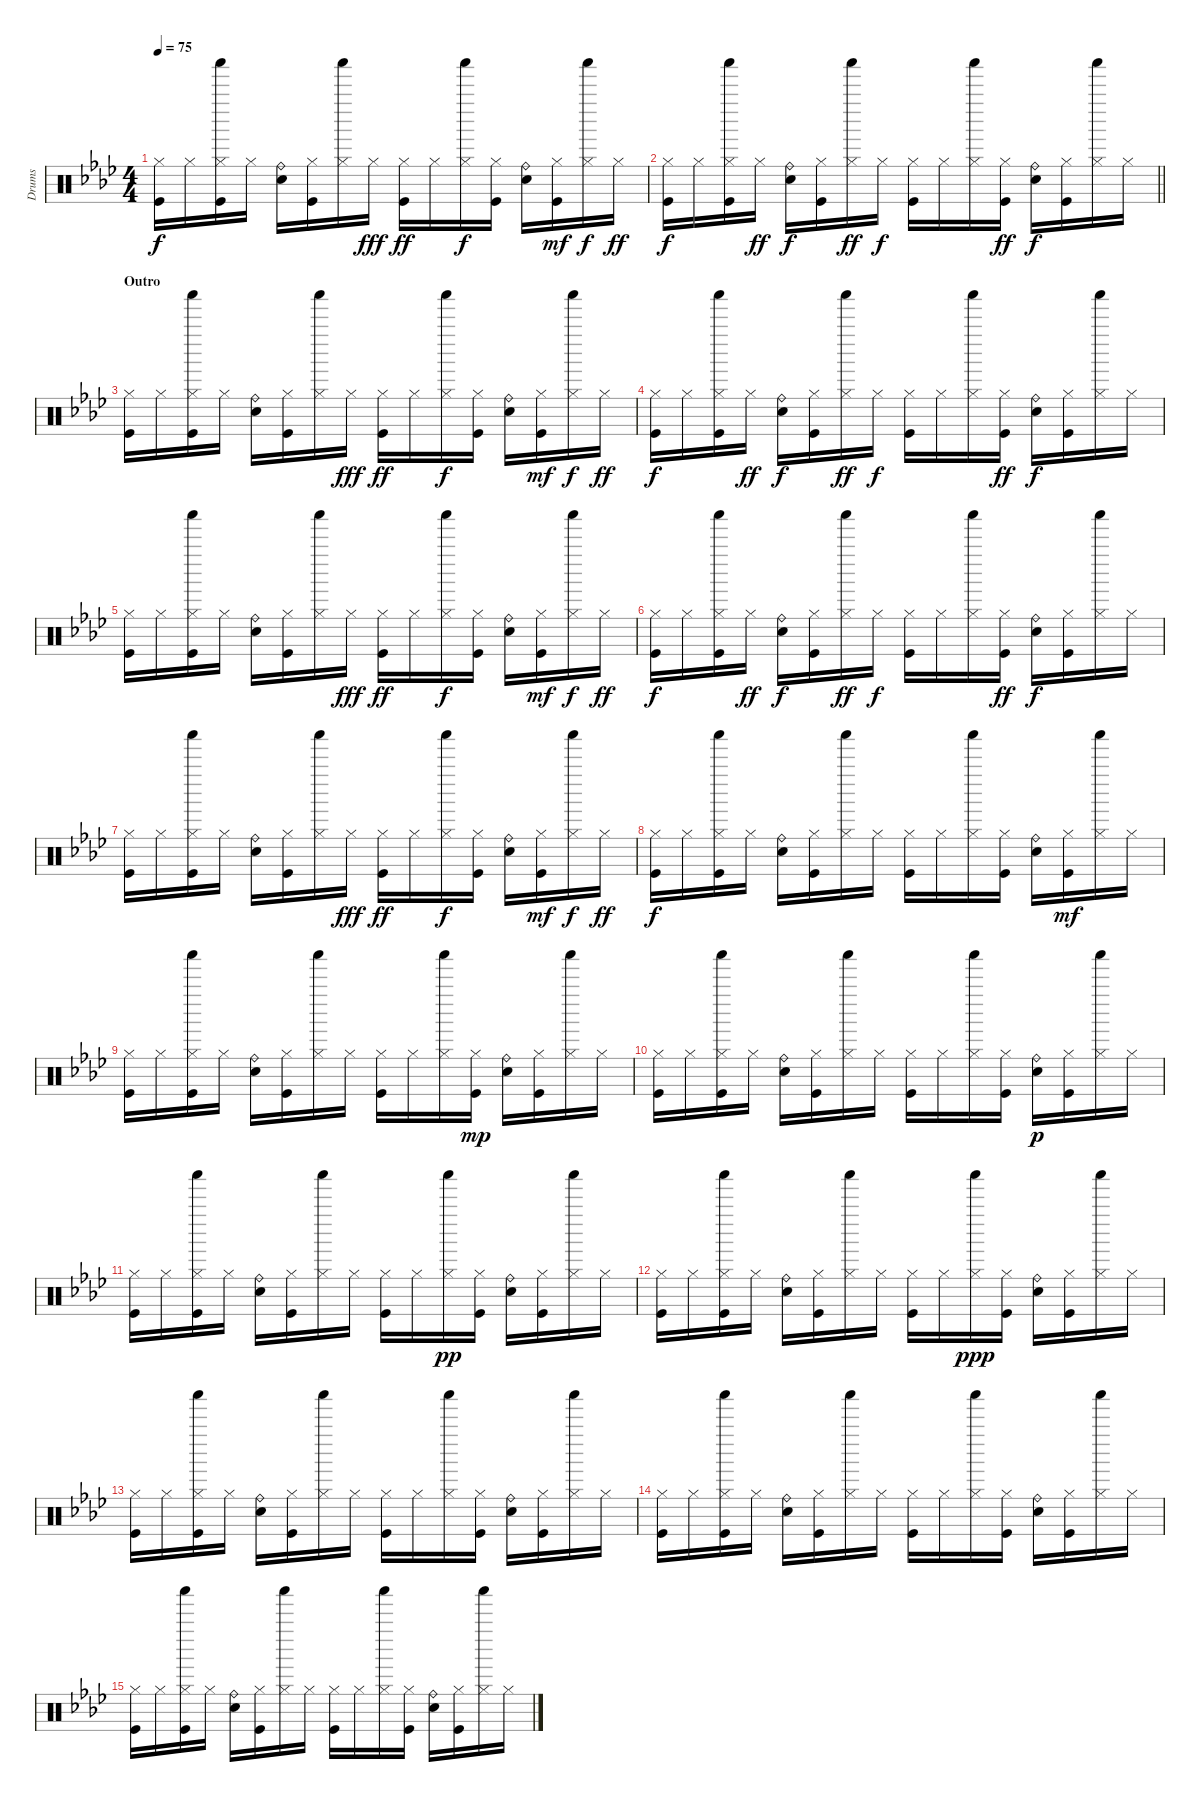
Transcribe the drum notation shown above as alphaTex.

\track ("Drums" "Drums") {instrument percussion}
\staff {score}
\articulation defaults
\ts (4 4)
\tempo 75
\clef neutral
\ks fminor
("Hi-Hat (closed)" "Kick (hit)").16{dy f} "Hi-Hat (closed)".16 ("Shaker (hit)" "Hi-Hat (closed)" "Kick (hit)").16 "Hi-Hat (closed)".16 ("Ride (bell)" "Electric Snare (hit)").16 ("Hi-Hat (closed)" "Kick (hit)").16 ("Shaker (hit)" "Hi-Hat (closed)").16 "Hi-Hat (closed)".16{dy fff} ("Hi-Hat (closed)" "Kick (hit)").16{dy ff} "Hi-Hat (closed)".16 ("Shaker (hit)" "Hi-Hat (closed)").16{dy f} ("Hi-Hat (closed)" "Kick (hit)").16 ("Ride (bell)" "Electric Snare (hit)").16 ("Hi-Hat (closed)" "Kick (hit)").16{dy mf} ("Shaker (hit)" "Hi-Hat (closed)").16{dy f} "Hi-Hat (closed)".16{dy ff} |
\barLineRight lightlight
("Hi-Hat (closed)" "Kick (hit)").16{dy f} "Hi-Hat (closed)".16 ("Shaker (hit)" "Hi-Hat (closed)" "Kick (hit)").16 "Hi-Hat (closed)".16{dy ff} ("Ride (bell)" "Electric Snare (hit)").16{dy f} ("Hi-Hat (closed)" "Kick (hit)").16 ("Shaker (hit)" "Hi-Hat (closed)").16{dy ff} "Hi-Hat (closed)".16{dy f} ("Hi-Hat (closed)" "Kick (hit)").16 "Hi-Hat (closed)".16 ("Shaker (hit)" "Hi-Hat (closed)").16 ("Hi-Hat (closed)" "Kick (hit)").16{dy ff} ("Ride (bell)" "Electric Snare (hit)").16{dy f} ("Hi-Hat (closed)" "Kick (hit)").16 ("Shaker (hit)" "Hi-Hat (closed)").16 "Hi-Hat (closed)".16 |
\section ("" "Outro")
("Hi-Hat (closed)" "Kick (hit)").16 "Hi-Hat (closed)".16 ("Shaker (hit)" "Hi-Hat (closed)" "Kick (hit)").16 "Hi-Hat (closed)".16 ("Ride (bell)" "Electric Snare (hit)").16 ("Hi-Hat (closed)" "Kick (hit)").16 ("Shaker (hit)" "Hi-Hat (closed)").16 "Hi-Hat (closed)".16{dy fff} ("Hi-Hat (closed)" "Kick (hit)").16{dy ff} "Hi-Hat (closed)".16 ("Shaker (hit)" "Hi-Hat (closed)").16{dy f} ("Hi-Hat (closed)" "Kick (hit)").16 ("Ride (bell)" "Electric Snare (hit)").16 ("Hi-Hat (closed)" "Kick (hit)").16{dy mf} ("Shaker (hit)" "Hi-Hat (closed)").16{dy f} "Hi-Hat (closed)".16{dy ff} |
("Hi-Hat (closed)" "Kick (hit)").16{dy f} "Hi-Hat (closed)".16 ("Shaker (hit)" "Hi-Hat (closed)" "Kick (hit)").16 "Hi-Hat (closed)".16{dy ff} ("Ride (bell)" "Electric Snare (hit)").16{dy f} ("Hi-Hat (closed)" "Kick (hit)").16 ("Shaker (hit)" "Hi-Hat (closed)").16{dy ff} "Hi-Hat (closed)".16{dy f} ("Hi-Hat (closed)" "Kick (hit)").16 "Hi-Hat (closed)".16 ("Shaker (hit)" "Hi-Hat (closed)").16 ("Hi-Hat (closed)" "Kick (hit)").16{dy ff} ("Ride (bell)" "Electric Snare (hit)").16{dy f} ("Hi-Hat (closed)" "Kick (hit)").16 ("Shaker (hit)" "Hi-Hat (closed)").16 "Hi-Hat (closed)".16 |
("Hi-Hat (closed)" "Kick (hit)").16 "Hi-Hat (closed)".16 ("Shaker (hit)" "Hi-Hat (closed)" "Kick (hit)").16 "Hi-Hat (closed)".16 ("Ride (bell)" "Electric Snare (hit)").16 ("Hi-Hat (closed)" "Kick (hit)").16 ("Shaker (hit)" "Hi-Hat (closed)").16 "Hi-Hat (closed)".16{dy fff} ("Hi-Hat (closed)" "Kick (hit)").16{dy ff} "Hi-Hat (closed)".16 ("Shaker (hit)" "Hi-Hat (closed)").16{dy f} ("Hi-Hat (closed)" "Kick (hit)").16 ("Ride (bell)" "Electric Snare (hit)").16 ("Hi-Hat (closed)" "Kick (hit)").16{dy mf} ("Shaker (hit)" "Hi-Hat (closed)").16{dy f} "Hi-Hat (closed)".16{dy ff} |
("Hi-Hat (closed)" "Kick (hit)").16{dy f} "Hi-Hat (closed)".16 ("Shaker (hit)" "Hi-Hat (closed)" "Kick (hit)").16 "Hi-Hat (closed)".16{dy ff} ("Ride (bell)" "Electric Snare (hit)").16{dy f} ("Hi-Hat (closed)" "Kick (hit)").16 ("Shaker (hit)" "Hi-Hat (closed)").16{dy ff} "Hi-Hat (closed)".16{dy f} ("Hi-Hat (closed)" "Kick (hit)").16 "Hi-Hat (closed)".16 ("Shaker (hit)" "Hi-Hat (closed)").16 ("Hi-Hat (closed)" "Kick (hit)").16{dy ff} ("Ride (bell)" "Electric Snare (hit)").16{dy f} ("Hi-Hat (closed)" "Kick (hit)").16 ("Shaker (hit)" "Hi-Hat (closed)").16 "Hi-Hat (closed)".16 |
("Hi-Hat (closed)" "Kick (hit)").16 "Hi-Hat (closed)".16 ("Shaker (hit)" "Hi-Hat (closed)" "Kick (hit)").16 "Hi-Hat (closed)".16 ("Ride (bell)" "Electric Snare (hit)").16 ("Hi-Hat (closed)" "Kick (hit)").16 ("Shaker (hit)" "Hi-Hat (closed)").16 "Hi-Hat (closed)".16{dy fff} ("Hi-Hat (closed)" "Kick (hit)").16{dy ff} "Hi-Hat (closed)".16 ("Shaker (hit)" "Hi-Hat (closed)").16{dy f} ("Hi-Hat (closed)" "Kick (hit)").16 ("Ride (bell)" "Electric Snare (hit)").16 ("Hi-Hat (closed)" "Kick (hit)").16{dy mf} ("Shaker (hit)" "Hi-Hat (closed)").16{dy f} "Hi-Hat (closed)".16{dy ff} |
("Hi-Hat (closed)" "Kick (hit)").16{dy f} "Hi-Hat (closed)".16 ("Shaker (hit)" "Hi-Hat (closed)" "Kick (hit)").16 "Hi-Hat (closed)".16 ("Ride (bell)" "Electric Snare (hit)").16 ("Hi-Hat (closed)" "Kick (hit)").16 ("Shaker (hit)" "Hi-Hat (closed)").16 "Hi-Hat (closed)".16 ("Hi-Hat (closed)" "Kick (hit)").16 "Hi-Hat (closed)".16 ("Shaker (hit)" "Hi-Hat (closed)").16 ("Hi-Hat (closed)" "Kick (hit)").16 ("Ride (bell)" "Electric Snare (hit)").16 ("Hi-Hat (closed)" "Kick (hit)").16{dy mf} ("Shaker (hit)" "Hi-Hat (closed)").16 "Hi-Hat (closed)".16 |
("Hi-Hat (closed)" "Kick (hit)").16 "Hi-Hat (closed)".16 ("Shaker (hit)" "Hi-Hat (closed)" "Kick (hit)").16 "Hi-Hat (closed)".16 ("Ride (bell)" "Electric Snare (hit)").16 ("Hi-Hat (closed)" "Kick (hit)").16 ("Shaker (hit)" "Hi-Hat (closed)").16 "Hi-Hat (closed)".16 ("Hi-Hat (closed)" "Kick (hit)").16 "Hi-Hat (closed)".16 ("Shaker (hit)" "Hi-Hat (closed)").16 ("Hi-Hat (closed)" "Kick (hit)").16{dy mp} ("Ride (bell)" "Electric Snare (hit)").16 ("Hi-Hat (closed)" "Kick (hit)").16 ("Shaker (hit)" "Hi-Hat (closed)").16 "Hi-Hat (closed)".16 |
("Hi-Hat (closed)" "Kick (hit)").16 "Hi-Hat (closed)".16 ("Shaker (hit)" "Hi-Hat (closed)" "Kick (hit)").16 "Hi-Hat (closed)".16 ("Ride (bell)" "Electric Snare (hit)").16 ("Hi-Hat (closed)" "Kick (hit)").16 ("Shaker (hit)" "Hi-Hat (closed)").16 "Hi-Hat (closed)".16 ("Hi-Hat (closed)" "Kick (hit)").16 "Hi-Hat (closed)".16 ("Shaker (hit)" "Hi-Hat (closed)").16 ("Hi-Hat (closed)" "Kick (hit)").16 ("Ride (bell)" "Electric Snare (hit)").16{dy p} ("Hi-Hat (closed)" "Kick (hit)").16 ("Shaker (hit)" "Hi-Hat (closed)").16 "Hi-Hat (closed)".16 |
("Hi-Hat (closed)" "Kick (hit)").16 "Hi-Hat (closed)".16 ("Shaker (hit)" "Hi-Hat (closed)" "Kick (hit)").16 "Hi-Hat (closed)".16 ("Ride (bell)" "Electric Snare (hit)").16 ("Hi-Hat (closed)" "Kick (hit)").16 ("Shaker (hit)" "Hi-Hat (closed)").16 "Hi-Hat (closed)".16 ("Hi-Hat (closed)" "Kick (hit)").16 "Hi-Hat (closed)".16 ("Shaker (hit)" "Hi-Hat (closed)").16{dy pp} ("Hi-Hat (closed)" "Kick (hit)").16 ("Ride (bell)" "Electric Snare (hit)").16 ("Hi-Hat (closed)" "Kick (hit)").16 ("Shaker (hit)" "Hi-Hat (closed)").16 "Hi-Hat (closed)".16 |
("Hi-Hat (closed)" "Kick (hit)").16 "Hi-Hat (closed)".16 ("Shaker (hit)" "Hi-Hat (closed)" "Kick (hit)").16 "Hi-Hat (closed)".16 ("Ride (bell)" "Electric Snare (hit)").16 ("Hi-Hat (closed)" "Kick (hit)").16 ("Shaker (hit)" "Hi-Hat (closed)").16 "Hi-Hat (closed)".16 ("Hi-Hat (closed)" "Kick (hit)").16 "Hi-Hat (closed)".16 ("Shaker (hit)" "Hi-Hat (closed)").16{dy ppp} ("Hi-Hat (closed)" "Kick (hit)").16 ("Ride (bell)" "Electric Snare (hit)").16 ("Hi-Hat (closed)" "Kick (hit)").16 ("Shaker (hit)" "Hi-Hat (closed)").16 "Hi-Hat (closed)".16 |
("Hi-Hat (closed)" "Kick (hit)").16 "Hi-Hat (closed)".16 ("Shaker (hit)" "Hi-Hat (closed)" "Kick (hit)").16 "Hi-Hat (closed)".16 ("Ride (bell)" "Electric Snare (hit)").16 ("Hi-Hat (closed)" "Kick (hit)").16 ("Shaker (hit)" "Hi-Hat (closed)").16 "Hi-Hat (closed)".16 ("Hi-Hat (closed)" "Kick (hit)").16 "Hi-Hat (closed)".16 ("Shaker (hit)" "Hi-Hat (closed)").16 ("Hi-Hat (closed)" "Kick (hit)").16 ("Ride (bell)" "Electric Snare (hit)").16 ("Hi-Hat (closed)" "Kick (hit)").16 ("Shaker (hit)" "Hi-Hat (closed)").16 "Hi-Hat (closed)".16 |
("Hi-Hat (closed)" "Kick (hit)").16 "Hi-Hat (closed)".16 ("Shaker (hit)" "Hi-Hat (closed)" "Kick (hit)").16 "Hi-Hat (closed)".16 ("Ride (bell)" "Electric Snare (hit)").16 ("Hi-Hat (closed)" "Kick (hit)").16 ("Shaker (hit)" "Hi-Hat (closed)").16 "Hi-Hat (closed)".16 ("Hi-Hat (closed)" "Kick (hit)").16 "Hi-Hat (closed)".16 ("Shaker (hit)" "Hi-Hat (closed)").16 ("Hi-Hat (closed)" "Kick (hit)").16 ("Ride (bell)" "Electric Snare (hit)").16 ("Hi-Hat (closed)" "Kick (hit)").16 ("Shaker (hit)" "Hi-Hat (closed)").16 "Hi-Hat (closed)".16 |
("Hi-Hat (closed)" "Kick (hit)").16 "Hi-Hat (closed)".16 ("Shaker (hit)" "Hi-Hat (closed)" "Kick (hit)").16 "Hi-Hat (closed)".16 ("Ride (bell)" "Electric Snare (hit)").16 ("Hi-Hat (closed)" "Kick (hit)").16 ("Shaker (hit)" "Hi-Hat (closed)").16 "Hi-Hat (closed)".16 ("Hi-Hat (closed)" "Kick (hit)").16 "Hi-Hat (closed)".16 ("Shaker (hit)" "Hi-Hat (closed)").16 ("Hi-Hat (closed)" "Kick (hit)").16 ("Ride (bell)" "Electric Snare (hit)").16 ("Hi-Hat (closed)" "Kick (hit)").16 ("Shaker (hit)" "Hi-Hat (closed)").16 "Hi-Hat (closed)".16
